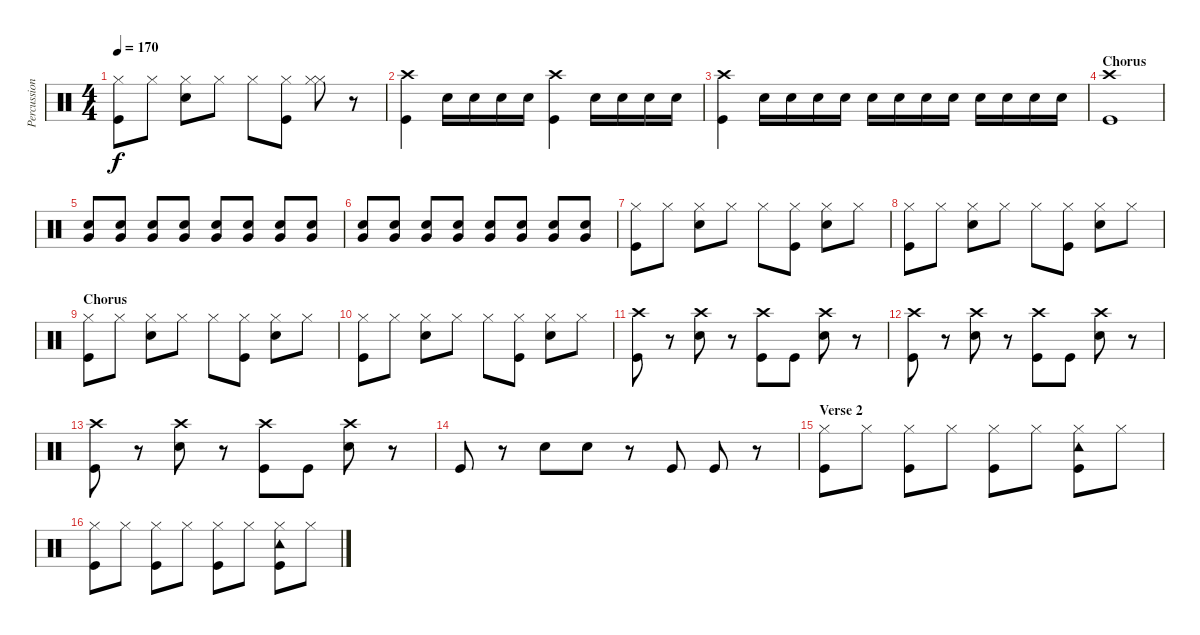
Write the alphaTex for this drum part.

\track ("Percussion" "Percussion") {instrument percussion}
\staff {score}
\articulation defaults
\ts (4 4)
\tempo 170
\clef neutral
\ks c
("Hi-Hat (closed)" "Kick (hit)").8{dy f} "Hi-Hat (closed)".8 ("Hi-Hat (closed)" "Snare (hit) 2").8 "Hi-Hat (closed)".8 "Hi-Hat (closed)".8 ("Hi-Hat (closed)" "Kick (hit)").8 ("Hi-Hat (closed)" "Hi-Hat (closed)").8 r.8 |
("Crash high (hit)" "Kick (hit)").4 "Snare (hit) 2".16 "Snare (hit) 2".16 "Snare (hit) 2".16 "Snare (hit) 2".16 ("Crash high (hit)" "Kick (hit)").4 "Snare (hit) 2".16 "Snare (hit) 2".16 "Snare (hit) 2".16 "Snare (hit) 2".16 |
("Crash high (hit)" "Kick (hit)").4 "Snare (hit) 2".16 "Snare (hit) 2".16 "Snare (hit) 2".16 "Snare (hit) 2".16 "Snare (hit) 2".16 "Snare (hit) 2".16 "Snare (hit) 2".16 "Snare (hit) 2".16 "Snare (hit) 2".16 "Snare (hit) 2".16 "Snare (hit) 2".16 "Snare (hit) 2".16 |
\section ("" "Chorus")
("Crash high (hit)" "Kick (hit)").1 |
("Snare (hit) 2" "Very Low Tom (hit)").8 ("Snare (hit) 2" "Very Low Tom (hit)").8 ("Snare (hit) 2" "Very Low Tom (hit)").8 ("Snare (hit) 2" "Very Low Tom (hit)").8 ("Snare (hit) 2" "Very Low Tom (hit)").8 ("Snare (hit) 2" "Very Low Tom (hit)").8 ("Snare (hit) 2" "Very Low Tom (hit)").8 ("Snare (hit) 2" "Very Low Tom (hit)").8 |
("Snare (hit) 2" "Very Low Tom (hit)").8 ("Snare (hit) 2" "Very Low Tom (hit)").8 ("Snare (hit) 2" "Very Low Tom (hit)").8 ("Snare (hit) 2" "Very Low Tom (hit)").8 ("Snare (hit) 2" "Very Low Tom (hit)").8 ("Snare (hit) 2" "Very Low Tom (hit)").8 ("Snare (hit) 2" "Very Low Tom (hit)").8 ("Snare (hit) 2" "Very Low Tom (hit)").8 |
("Hi-Hat (closed)" "Kick (hit)").8 "Hi-Hat (closed)".8 ("Hi-Hat (closed)" "Snare (hit) 2").8 "Hi-Hat (closed)".8 "Hi-Hat (closed)".8 ("Hi-Hat (closed)" "Kick (hit)").8 ("Hi-Hat (closed)" "Snare (hit) 2").8 "Hi-Hat (closed)".8 |
("Hi-Hat (closed)" "Kick (hit)").8 "Hi-Hat (closed)".8 ("Hi-Hat (closed)" "Snare (hit) 2").8 "Hi-Hat (closed)".8 "Hi-Hat (closed)".8 ("Hi-Hat (closed)" "Kick (hit)").8 ("Hi-Hat (closed)" "Snare (hit) 2").8 "Hi-Hat (closed)".8 |
\section ("" "Chorus")
("Hi-Hat (closed)" "Kick (hit)").8 "Hi-Hat (closed)".8 ("Hi-Hat (closed)" "Snare (hit) 2").8 "Hi-Hat (closed)".8 "Hi-Hat (closed)".8 ("Hi-Hat (closed)" "Kick (hit)").8 ("Hi-Hat (closed)" "Snare (hit) 2").8 "Hi-Hat (closed)".8 |
("Hi-Hat (closed)" "Kick (hit)").8 "Hi-Hat (closed)".8 ("Hi-Hat (closed)" "Snare (hit) 2").8 "Hi-Hat (closed)".8 "Hi-Hat (closed)".8 ("Hi-Hat (closed)" "Kick (hit)").8 ("Hi-Hat (closed)" "Snare (hit) 2").8 "Hi-Hat (closed)".8 |
("Crash high (hit)" "Kick (hit)").8 r.8 ("Crash high (hit)" "Snare (hit) 2").8 r.8 ("Crash high (hit)" "Kick (hit)").8 "Kick (hit)".8 ("Crash high (hit)" "Snare (hit) 2").8 r.8 |
("Crash high (hit)" "Kick (hit)").8 r.8 ("Crash high (hit)" "Snare (hit) 2").8 r.8 ("Crash high (hit)" "Kick (hit)").8 "Kick (hit)".8 ("Crash high (hit)" "Snare (hit) 2").8 r.8 |
("Crash high (hit)" "Kick (hit)").8 r.8 ("Crash high (hit)" "Snare (hit) 2").8 r.8 ("Crash high (hit)" "Kick (hit)").8 "Kick (hit)".8 ("Crash high (hit)" "Snare (hit) 2").8 r.8 |
"Kick (hit)".8 r.8 "Snare (hit) 2".8 "Snare (hit) 2".8 r.8 "Kick (hit)".8 "Kick (hit)".8 r.8 |
\section ("" "Verse 2")
("Hi-Hat (closed)" "Kick (hit)").8 "Hi-Hat (closed)".8 ("Hi-Hat (closed)" "Kick (hit)").8 "Hi-Hat (closed)".8 ("Hi-Hat (closed)" "Kick (hit)").8 "Hi-Hat (closed)".8 ("Hi-Hat (closed)" "Tambourine (hit)" "Kick (hit)").8 "Hi-Hat (closed)".8 |
("Hi-Hat (closed)" "Kick (hit)").8 "Hi-Hat (closed)".8 ("Hi-Hat (closed)" "Kick (hit)").8 "Hi-Hat (closed)".8 ("Hi-Hat (closed)" "Kick (hit)").8 "Hi-Hat (closed)".8 ("Hi-Hat (closed)" "Tambourine (hit)" "Kick (hit)").8 "Hi-Hat (closed)".8
